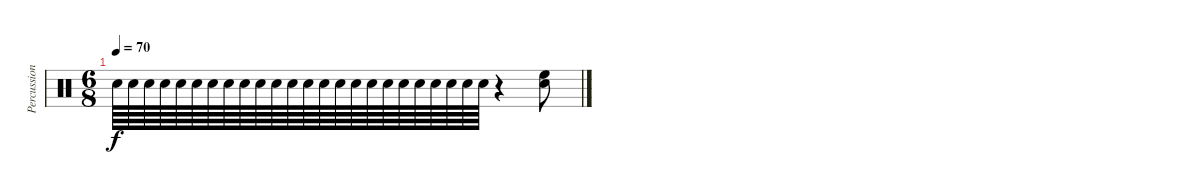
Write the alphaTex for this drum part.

\track ("Percussion" "Percussion") {instrument percussion}
\staff {score}
\articulation defaults
\ts (6 8)
\tempo 70
\clef neutral
\ks c "Snare (hit) 2".64{dy f} "Snare (hit) 2".64 "Snare (hit) 2".64 "Snare (hit) 2".64 "Snare (hit) 2".64 "Snare (hit) 2".64 "Snare (hit) 2".64 "Snare (hit) 2".64 "Snare (hit) 2".64 "Snare (hit) 2".64 "Snare (hit) 2".64 "Snare (hit) 2".64 "Snare (hit) 2".64 "Snare (hit) 2".64 "Snare (hit) 2".64 "Snare (hit) 2".64 "Snare (hit) 2".64 "Snare (hit) 2".64 "Snare (hit) 2".64 "Snare (hit) 2".64 "Snare (hit) 2".64 "Snare (hit) 2".64 "Snare (hit) 2".64 "Snare (hit) 2".64
r.4 ("High Floor Tom (hit)" "Snare (hit) 2").8
